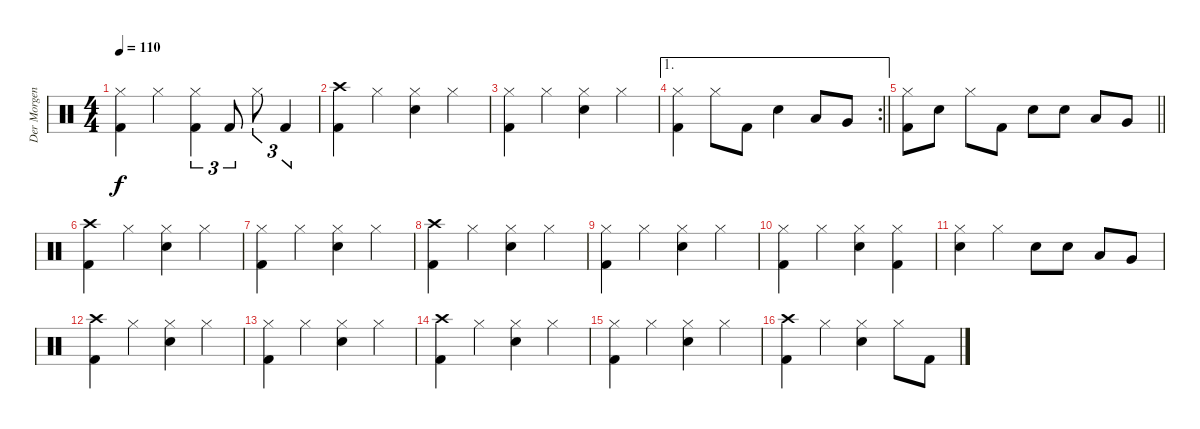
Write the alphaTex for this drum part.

\track ("Der Morgenstern" "Der Morgen") {instrument percussion}
\staff {score}
\articulation defaults
\ts (4 4)
\tempo 110
\clef neutral
\ks c
("Hi-Hat (closed)" "Kick (hit) 2").4{dy f} "Hi-Hat (closed)".4 ("Hi-Hat (closed)" "Kick (hit) 2").4{tu (3 2)} "Kick (hit) 2".8{tu (3 2)} "Hi-Hat (closed)".8{tu (3 2)} "Kick (hit) 2".4{tu (3 2)} |
("Crash high (hit)" "Kick (hit) 2").4 "Hi-Hat (closed)".4 ("Hi-Hat (closed)" "Electric Snare (hit)").4 "Hi-Hat (closed)".4 |
("Hi-Hat (closed)" "Kick (hit) 2").4 "Hi-Hat (closed)".4 ("Hi-Hat (closed)" "Electric Snare (hit)").4 "Hi-Hat (closed)".4 |
\ae 1
\rc 2
\barLineRight lightlight
("Hi-Hat (closed)" "Kick (hit) 2").4 "Hi-Hat (closed)".8 "Kick (hit) 2".8 "Electric Snare (hit)".4 "Low Tom (hit)".8 "Very Low Tom (hit)".8 |
\barLineRight lightlight
("Hi-Hat (closed)" "Kick (hit) 2").8 "Electric Snare (hit)".8 "Hi-Hat (closed)".8 "Kick (hit) 2".8 "Electric Snare (hit)".8 "Electric Snare (hit)".8 "Low Tom (hit)".8 "Very Low Tom (hit)".8 |
("Crash high (hit)" "Kick (hit) 2").4 "Hi-Hat (closed)".4 ("Hi-Hat (closed)" "Electric Snare (hit)").4 "Hi-Hat (closed)".4 |
("Hi-Hat (closed)" "Kick (hit) 2").4 "Hi-Hat (closed)".4 ("Hi-Hat (closed)" "Electric Snare (hit)").4 "Hi-Hat (closed)".4 |
("Crash high (hit)" "Kick (hit) 2").4 "Hi-Hat (closed)".4 ("Hi-Hat (closed)" "Electric Snare (hit)").4 "Hi-Hat (closed)".4 |
("Hi-Hat (closed)" "Kick (hit) 2").4 "Hi-Hat (closed)".4 ("Hi-Hat (closed)" "Electric Snare (hit)").4 "Hi-Hat (closed)".4 |
("Hi-Hat (closed)" "Kick (hit) 2").4 "Hi-Hat (closed)".4 ("Hi-Hat (closed)" "Electric Snare (hit)").4 ("Hi-Hat (closed)" "Kick (hit) 2").4 |
("Hi-Hat (closed)" "Electric Snare (hit)").4 "Hi-Hat (closed)".4 "Electric Snare (hit)".8 "Electric Snare (hit)".8 "Low Tom (hit)".8 "Very Low Tom (hit)".8 |
("Crash high (hit)" "Kick (hit) 2").4 "Hi-Hat (closed)".4 ("Hi-Hat (closed)" "Electric Snare (hit)").4 "Hi-Hat (closed)".4 |
("Hi-Hat (closed)" "Kick (hit) 2").4 "Hi-Hat (closed)".4 ("Hi-Hat (closed)" "Electric Snare (hit)").4 "Hi-Hat (closed)".4 |
("Crash high (hit)" "Kick (hit) 2").4 "Hi-Hat (closed)".4 ("Hi-Hat (closed)" "Electric Snare (hit)").4 "Hi-Hat (closed)".4 |
("Hi-Hat (closed)" "Kick (hit) 2").4 "Hi-Hat (closed)".4 ("Hi-Hat (closed)" "Electric Snare (hit)").4 "Hi-Hat (closed)".4 |
("Crash high (hit)" "Kick (hit) 2").4 "Hi-Hat (closed)".4 ("Hi-Hat (closed)" "Electric Snare (hit)").4 "Hi-Hat (closed)".8 "Kick (hit) 2".8
